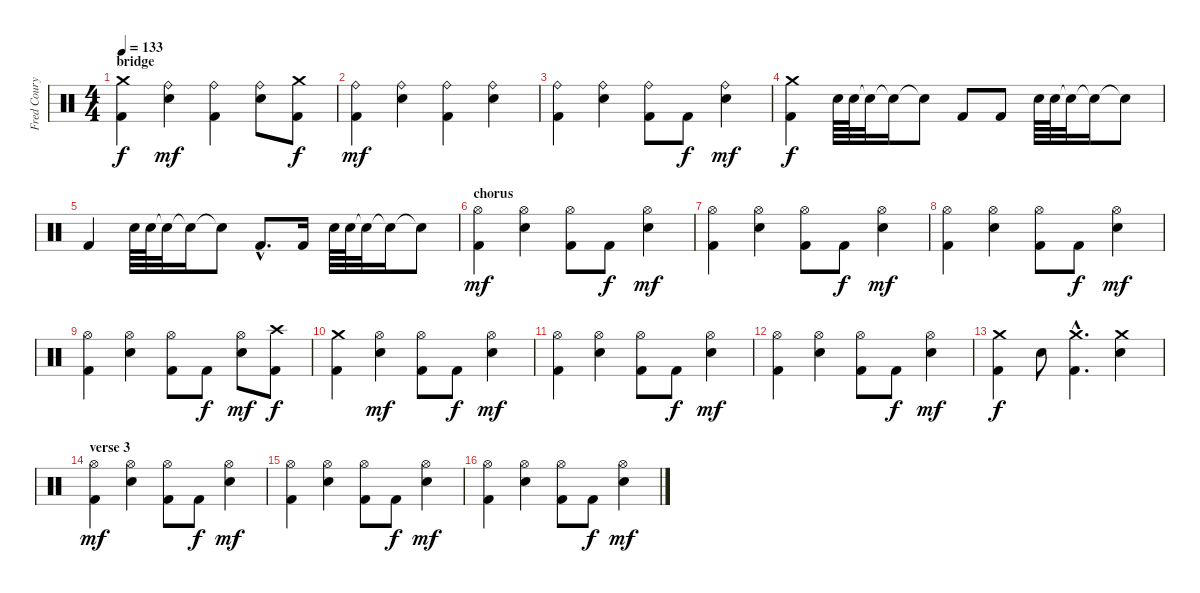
\track ("Fred Coury" "Fred Coury") {instrument percussion}
\staff {score}
\articulation defaults
\ts (4 4)
\section ("" "bridge")
\tempo 133
\clef neutral
\ks c
("Kick (hit) 2" "Crash medium (hit)").4{dy f} ("Ride (bell)" "Snare (hit) 2").4{dy mf} ("Kick (hit) 2" "Ride (bell)").4 ("Ride (bell)" "Snare (hit) 2").8 ("Kick (hit) 2" "Crash medium (hit)").8{dy f} |
("Kick (hit) 2" "Ride (bell)").4{dy mf} ("Ride (bell)" "Snare (hit) 2").4 ("Kick (hit) 2" "Ride (bell)").4 ("Ride (bell)" "Snare (hit) 2").4 |
("Kick (hit) 2" "Ride (bell)").4 ("Ride (bell)" "Snare (hit) 2").4 ("Kick (hit) 2" "Ride (bell)").8 "Kick (hit) 2".8{dy f} ("Ride (bell)" "Snare (hit) 2").4{dy mf} |
("Kick (hit) 2" "Crash medium (hit)").4{dy f} "Snare (hit) 2".64 "Snare (hit) 2".64 "Snare (hit)"{t}.32 "Snare (hit)"{t}.16 "Snare (hit)"{t}.8 "Kick (hit) 2".8 "Kick (hit) 2".8 "Snare (hit) 2".64 "Snare (hit) 2".64 "Snare (hit)"{t}.32 "Snare (hit)"{t}.16 "Snare (hit)"{t}.8 |
"Kick (hit) 2".4 "Snare (hit) 2".64 "Snare (hit) 2".64 "Snare (hit)"{t}.32 "Snare (hit)"{t}.16 "Snare (hit)"{t}.8 "Kick (hit) 2"{hac}.8{d} "Kick (hit) 2".16 "Snare (hit) 2".64 "Snare (hit) 2".64 "Snare (hit)"{t}.32 "Snare (hit)"{t}.16 "Snare (hit)"{t}.8 |
\section ("" "chorus")
("Kick (hit) 2" "Hi-Hat (open)").4{dy mf} ("Hi-Hat (open)" "Snare (hit) 2").4 ("Kick (hit) 2" "Hi-Hat (open)").8 "Kick (hit) 2".8{dy f} ("Hi-Hat (open)" "Snare (hit) 2").4{dy mf} |
("Kick (hit) 2" "Hi-Hat (open)").4 ("Hi-Hat (open)" "Snare (hit) 2").4 ("Kick (hit) 2" "Hi-Hat (open)").8 "Kick (hit) 2".8{dy f} ("Hi-Hat (open)" "Snare (hit) 2").4{dy mf} |
("Kick (hit) 2" "Hi-Hat (open)").4 ("Hi-Hat (open)" "Snare (hit) 2").4 ("Kick (hit) 2" "Hi-Hat (open)").8 "Kick (hit) 2".8{dy f} ("Hi-Hat (open)" "Snare (hit) 2").4{dy mf} |
("Kick (hit) 2" "Hi-Hat (open)").4 ("Hi-Hat (open)" "Snare (hit) 2").4 ("Kick (hit) 2" "Hi-Hat (open)").8 "Kick (hit) 2".8{dy f} ("Hi-Hat (open)" "Snare (hit) 2").8{dy mf} ("Kick (hit) 2" "Crash high (hit)").8{dy f} |
("Kick (hit) 2" "Crash medium (hit)").4 ("Hi-Hat (open)" "Snare (hit) 2").4{dy mf} ("Kick (hit) 2" "Hi-Hat (open)").8 "Kick (hit) 2".8{dy f} ("Hi-Hat (open)" "Snare (hit) 2").4{dy mf} |
("Kick (hit) 2" "Hi-Hat (open)").4 ("Hi-Hat (open)" "Snare (hit) 2").4 ("Kick (hit) 2" "Hi-Hat (open)").8 "Kick (hit) 2".8{dy f} ("Hi-Hat (open)" "Snare (hit) 2").4{dy mf} |
("Kick (hit) 2" "Hi-Hat (open)").4 ("Hi-Hat (open)" "Snare (hit) 2").4 ("Kick (hit) 2" "Hi-Hat (open)").8 "Kick (hit) 2".8{dy f} ("Hi-Hat (open)" "Snare (hit) 2").4{dy mf} |
("Kick (hit) 2" "Crash medium (hit)").4{dy f} "Snare (hit) 2".8 ("Kick (hit) 2"{hac} "Crash medium (hit)"{hac}).4{d} ("Crash medium (hit)" "Snare (hit) 2").4 |
\section ("" "verse 3")
("Kick (hit) 2" "Hi-Hat (open)").4{dy mf} ("Hi-Hat (open)" "Snare (hit) 2").4 ("Kick (hit) 2" "Hi-Hat (open)").8 "Kick (hit) 2".8{dy f} ("Hi-Hat (open)" "Snare (hit) 2").4{dy mf} |
("Kick (hit) 2" "Hi-Hat (open)").4 ("Hi-Hat (open)" "Snare (hit) 2").4 ("Kick (hit) 2" "Hi-Hat (open)").8 "Kick (hit) 2".8{dy f} ("Hi-Hat (open)" "Snare (hit) 2").4{dy mf} |
("Kick (hit) 2" "Hi-Hat (open)").4 ("Hi-Hat (open)" "Snare (hit) 2").4 ("Kick (hit) 2" "Hi-Hat (open)").8 "Kick (hit) 2".8{dy f} ("Hi-Hat (open)" "Snare (hit) 2").4{dy mf}
